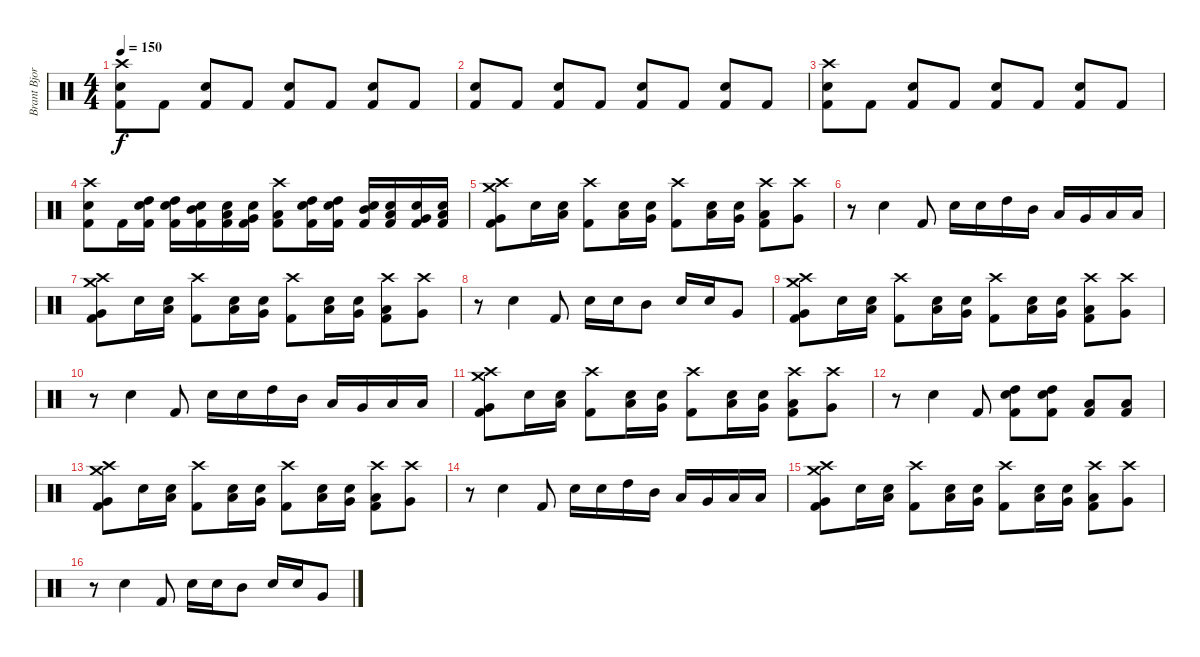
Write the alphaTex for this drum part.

\track ("Brant Bjork" "Brant Bjor") {instrument percussion}
\staff {score}
\articulation defaults
\ts (4 4)
\tempo 150
\clef neutral
\ks c
("Crash high (hit)" "Electric Snare (hit)" "Kick (hit) 2").8{dy f} "Kick (hit) 2".8 ("Electric Snare (hit)" "Kick (hit) 2").8 "Kick (hit) 2".8 ("Electric Snare (hit)" "Kick (hit) 2").8 "Kick (hit) 2".8 ("Electric Snare (hit)" "Kick (hit) 2").8 "Kick (hit) 2".8 |
("Electric Snare (hit)" "Kick (hit) 2").8 "Kick (hit) 2".8 ("Electric Snare (hit)" "Kick (hit) 2").8 "Kick (hit) 2".8 ("Electric Snare (hit)" "Kick (hit) 2").8 "Kick (hit) 2".8 ("Electric Snare (hit)" "Kick (hit) 2").8 "Kick (hit) 2".8 |
("Crash high (hit)" "Electric Snare (hit)" "Kick (hit) 2").8 "Kick (hit) 2".8 ("Electric Snare (hit)" "Kick (hit) 2").8 "Kick (hit) 2".8 ("Electric Snare (hit)" "Kick (hit) 2").8 "Kick (hit) 2".8 ("Electric Snare (hit)" "Kick (hit) 2").8 "Kick (hit) 2".8 |
("Crash high (hit)" "Electric Snare (hit)" "Kick (hit) 2").8 "Kick (hit) 2".16 ("Electric Snare (hit)" "High Tom (hit)" "Kick (hit) 2").16 ("Electric Snare (hit)" "High Tom (hit)" "Kick (hit) 2").16 ("Electric Snare (hit)" "Mid Tom (hit)" "Kick (hit) 2").16 ("Electric Snare (hit)" "Low Tom (hit)" "Kick (hit) 2").16 ("Electric Snare (hit)" "Very Low Tom (hit)" "Kick (hit) 2").16 ("Crash high (hit)" "Low Floor Tom (hit)" "Kick (hit) 2").8 ("Electric Snare (hit)" "High Tom (hit)" "Kick (hit) 2").16 ("Electric Snare (hit)" "High Tom (hit)" "Kick (hit) 2").16 ("Electric Snare (hit)" "Mid Tom (hit)" "Kick (hit) 2").16 ("Electric Snare (hit)" "Low Tom (hit)" "Kick (hit) 2").16 ("Electric Snare (hit)" "Very Low Tom (hit)" "Kick (hit) 2").16 ("Electric Snare (hit)" "Low Floor Tom (hit)" "Kick (hit) 2").16 |
("Very Low Tom (hit)" "Crash medium (hit)" "Crash high (hit)" "Kick (hit) 2").8 "Electric Snare (hit)".16 ("Electric Snare (hit)" "Low Tom (hit)").16 ("Crash high (hit)" "Kick (hit) 2").8 ("Electric Snare (hit)" "Low Tom (hit)").16 ("Electric Snare (hit)" "Very Low Tom (hit)").16 ("Crash high (hit)" "Kick (hit) 2").8 ("Electric Snare (hit)" "Low Tom (hit)").16 ("Electric Snare (hit)" "Very Low Tom (hit)").16 ("Crash high (hit)" "Low Tom (hit)" "Kick (hit) 2").8 ("Crash high (hit)" "Very Low Tom (hit)").8 |
r.8 "Electric Snare (hit)".4 "Kick (hit) 2".8 "Electric Snare (hit)".16 "Electric Snare (hit)".16 "High Tom (hit)".16 "Mid Tom (hit)".16 "Low Tom (hit)".16 "Very Low Tom (hit)".16 "Low Floor Tom (hit)".16 "Low Floor Tom (hit)".16 |
("Very Low Tom (hit)" "Crash medium (hit)" "Crash high (hit)" "Kick (hit) 2").8 "Electric Snare (hit)".16 ("Electric Snare (hit)" "Low Tom (hit)").16 ("Crash high (hit)" "Kick (hit) 2").8 ("Electric Snare (hit)" "Low Tom (hit)").16 ("Electric Snare (hit)" "Very Low Tom (hit)").16 ("Crash high (hit)" "Kick (hit) 2").8 ("Electric Snare (hit)" "Low Tom (hit)").16 ("Electric Snare (hit)" "Very Low Tom (hit)").16 ("Crash high (hit)" "Low Tom (hit)" "Kick (hit) 2").8 ("Crash high (hit)" "Very Low Tom (hit)").8 |
r.8 "Electric Snare (hit)".4 "Kick (hit) 2".8 "Electric Snare (hit)".16 "Electric Snare (hit)".16 "Mid Tom (hit)".8 "Electric Snare (hit)".16 "Electric Snare (hit)".16 "Very Low Tom (hit)".8 |
("Very Low Tom (hit)" "Crash medium (hit)" "Crash high (hit)" "Kick (hit) 2").8 "Electric Snare (hit)".16 ("Electric Snare (hit)" "Low Tom (hit)").16 ("Crash high (hit)" "Kick (hit) 2").8 ("Electric Snare (hit)" "Low Tom (hit)").16 ("Electric Snare (hit)" "Very Low Tom (hit)").16 ("Crash high (hit)" "Kick (hit) 2").8 ("Electric Snare (hit)" "Low Tom (hit)").16 ("Electric Snare (hit)" "Very Low Tom (hit)").16 ("Crash high (hit)" "Low Tom (hit)" "Kick (hit) 2").8 ("Crash high (hit)" "Very Low Tom (hit)").8 |
r.8 "Electric Snare (hit)".4 "Kick (hit) 2".8 "Electric Snare (hit)".16 "Electric Snare (hit)".16 "High Tom (hit)".16 "Mid Tom (hit)".16 "Low Tom (hit)".16 "Very Low Tom (hit)".16 "Low Floor Tom (hit)".16 "Low Floor Tom (hit)".16 |
("Very Low Tom (hit)" "Crash medium (hit)" "Crash high (hit)" "Kick (hit) 2").8 "Electric Snare (hit)".16 ("Electric Snare (hit)" "Low Tom (hit)").16 ("Crash high (hit)" "Kick (hit) 2").8 ("Electric Snare (hit)" "Low Tom (hit)").16 ("Electric Snare (hit)" "Very Low Tom (hit)").16 ("Crash high (hit)" "Kick (hit) 2").8 ("Electric Snare (hit)" "Low Tom (hit)").16 ("Electric Snare (hit)" "Very Low Tom (hit)").16 ("Crash high (hit)" "Low Tom (hit)" "Kick (hit) 2").8 ("Crash high (hit)" "Very Low Tom (hit)").8 |
r.8 "Electric Snare (hit)".4 "Kick (hit) 2".8 ("Electric Snare (hit)" "High Tom (hit)" "Kick (hit) 2").8 ("Electric Snare (hit)" "High Tom (hit)" "Kick (hit) 2").8 ("Low Tom (hit)" "Kick (hit) 2").8 ("Low Tom (hit)" "Kick (hit) 2").8 |
("Very Low Tom (hit)" "Crash medium (hit)" "Crash high (hit)" "Kick (hit) 2").8 "Electric Snare (hit)".16 ("Electric Snare (hit)" "Low Tom (hit)").16 ("Crash high (hit)" "Kick (hit) 2").8 ("Electric Snare (hit)" "Low Tom (hit)").16 ("Electric Snare (hit)" "Very Low Tom (hit)").16 ("Crash high (hit)" "Kick (hit) 2").8 ("Electric Snare (hit)" "Low Tom (hit)").16 ("Electric Snare (hit)" "Very Low Tom (hit)").16 ("Crash high (hit)" "Low Tom (hit)" "Kick (hit) 2").8 ("Crash high (hit)" "Very Low Tom (hit)").8 |
r.8 "Electric Snare (hit)".4 "Kick (hit) 2".8 "Electric Snare (hit)".16 "Electric Snare (hit)".16 "High Tom (hit)".16 "Mid Tom (hit)".16 "Low Tom (hit)".16 "Very Low Tom (hit)".16 "Low Floor Tom (hit)".16 "Low Floor Tom (hit)".16 |
("Very Low Tom (hit)" "Crash medium (hit)" "Crash high (hit)" "Kick (hit) 2").8 "Electric Snare (hit)".16 ("Electric Snare (hit)" "Low Tom (hit)").16 ("Crash high (hit)" "Kick (hit) 2").8 ("Electric Snare (hit)" "Low Tom (hit)").16 ("Electric Snare (hit)" "Very Low Tom (hit)").16 ("Crash high (hit)" "Kick (hit) 2").8 ("Electric Snare (hit)" "Low Tom (hit)").16 ("Electric Snare (hit)" "Very Low Tom (hit)").16 ("Crash high (hit)" "Low Tom (hit)" "Kick (hit) 2").8 ("Crash high (hit)" "Very Low Tom (hit)").8 |
r.8 "Electric Snare (hit)".4 "Kick (hit) 2".8 "Electric Snare (hit)".16 "Electric Snare (hit)".16 "Mid Tom (hit)".8 "Electric Snare (hit)".16 "Electric Snare (hit)".16 "Very Low Tom (hit)".8
